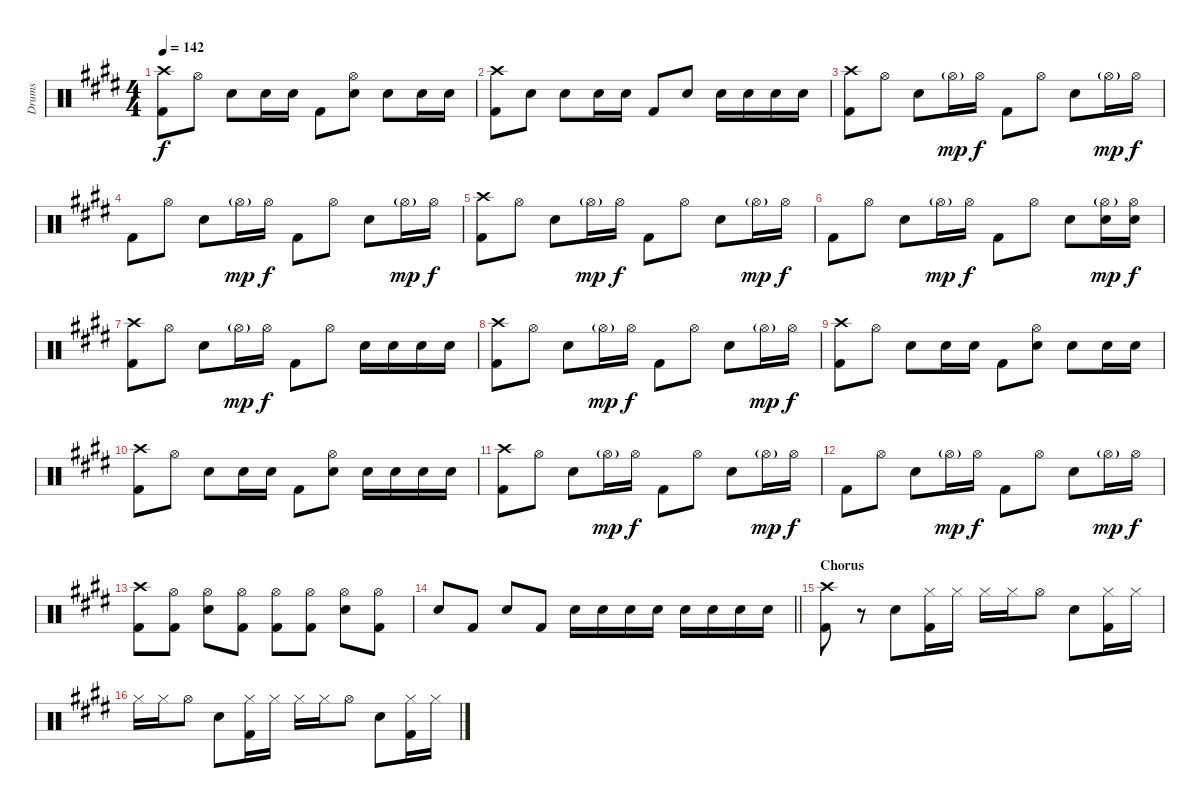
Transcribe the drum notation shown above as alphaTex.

\track ("Drums" "Drums") {instrument percussion}
\staff {score}
\articulation defaults
\ts (4 4)
\tempo 142
\clef neutral
\ks e
("Crash high (hit)" "Kick (hit) 2").8{dy f} "Hi-Hat (open)".8 "Electric Snare (hit)".8 "Electric Snare (hit)".16 "Electric Snare (hit)".16 "Kick (hit) 2".8 ("Hi-Hat (open)" "Electric Snare (hit)").8 "Electric Snare (hit)".8 "Electric Snare (hit)".16 "Electric Snare (hit)".16 |
("Crash high (hit)" "Kick (hit) 2").8 "Electric Snare (hit)".8 "Electric Snare (hit)".8 "Electric Snare (hit)".16 "Electric Snare (hit)".16 "Kick (hit) 2".8 "Electric Snare (hit)".8 "Electric Snare (hit)".16 "Electric Snare (hit)".16 "Electric Snare (hit)".16 "Electric Snare (hit)".16 |
("Crash high (hit)" "Kick (hit) 2").8 "Hi-Hat (open)".8 "Electric Snare (hit)".8 "Hi-Hat (open)"{g}.16{dy mp} "Hi-Hat (open)".16{dy f} "Kick (hit) 2".8 "Hi-Hat (open)".8 "Electric Snare (hit)".8 "Hi-Hat (open)"{g}.16{dy mp} "Hi-Hat (open)".16{dy f} |
"Kick (hit) 2".8 "Hi-Hat (open)".8 "Electric Snare (hit)".8 "Hi-Hat (open)"{g}.16{dy mp} "Hi-Hat (open)".16{dy f} "Kick (hit) 2".8 "Hi-Hat (open)".8 "Electric Snare (hit)".8 "Hi-Hat (open)"{g}.16{dy mp} "Hi-Hat (open)".16{dy f} |
("Crash high (hit)" "Kick (hit) 2").8 "Hi-Hat (open)".8 "Electric Snare (hit)".8 "Hi-Hat (open)"{g}.16{dy mp} "Hi-Hat (open)".16{dy f} "Kick (hit) 2".8 "Hi-Hat (open)".8 "Electric Snare (hit)".8 "Hi-Hat (open)"{g}.16{dy mp} "Hi-Hat (open)".16{dy f} |
"Kick (hit) 2".8 "Hi-Hat (open)".8 "Electric Snare (hit)".8 "Hi-Hat (open)"{g}.16{dy mp} "Hi-Hat (open)".16{dy f} "Kick (hit) 2".8 "Hi-Hat (open)".8 "Electric Snare (hit)".8 ("Hi-Hat (open)"{g} "Electric Snare (hit)").16{dy mp} ("Hi-Hat (open)" "Electric Snare (hit)").16{dy f} |
("Crash high (hit)" "Kick (hit) 2").8 "Hi-Hat (open)".8 "Electric Snare (hit)".8 "Hi-Hat (open)"{g}.16{dy mp} "Hi-Hat (open)".16{dy f} "Kick (hit) 2".8 "Hi-Hat (open)".8 "Electric Snare (hit)".16 "Electric Snare (hit)".16 "Electric Snare (hit)".16 "Electric Snare (hit)".16 |
("Crash high (hit)" "Kick (hit) 2").8 "Hi-Hat (open)".8 "Electric Snare (hit)".8 "Hi-Hat (open)"{g}.16{dy mp} "Hi-Hat (open)".16{dy f} "Kick (hit) 2".8 "Hi-Hat (open)".8 "Electric Snare (hit)".8 "Hi-Hat (open)"{g}.16{dy mp} "Hi-Hat (open)".16{dy f} |
("Crash high (hit)" "Kick (hit) 2").8 "Hi-Hat (open)".8 "Electric Snare (hit)".8 "Electric Snare (hit)".16 "Electric Snare (hit)".16 "Kick (hit) 2".8 ("Hi-Hat (open)" "Electric Snare (hit)").8 "Electric Snare (hit)".8 "Electric Snare (hit)".16 "Electric Snare (hit)".16 |
("Crash high (hit)" "Kick (hit) 2").8 "Hi-Hat (open)".8 "Electric Snare (hit)".8 "Electric Snare (hit)".16 "Electric Snare (hit)".16 "Kick (hit) 2".8 ("Hi-Hat (open)" "Electric Snare (hit)").8 "Electric Snare (hit)".16 "Electric Snare (hit)".16 "Electric Snare (hit)".16 "Electric Snare (hit)".16 |
("Crash high (hit)" "Kick (hit) 2").8 "Hi-Hat (open)".8 "Electric Snare (hit)".8 "Hi-Hat (open)"{g}.16{dy mp} "Hi-Hat (open)".16{dy f} "Kick (hit) 2".8 "Hi-Hat (open)".8 "Electric Snare (hit)".8 "Hi-Hat (open)"{g}.16{dy mp} "Hi-Hat (open)".16{dy f} |
"Kick (hit) 2".8 "Hi-Hat (open)".8 "Electric Snare (hit)".8 "Hi-Hat (open)"{g}.16{dy mp} "Hi-Hat (open)".16{dy f} "Kick (hit) 2".8 "Hi-Hat (open)".8 "Electric Snare (hit)".8 "Hi-Hat (open)"{g}.16{dy mp} "Hi-Hat (open)".16{dy f} |
("Crash high (hit)" "Kick (hit) 2").8 ("Hi-Hat (open)" "Kick (hit) 2").8 ("Hi-Hat (open)" "Electric Snare (hit)").8 ("Hi-Hat (open)" "Kick (hit) 2").8 ("Hi-Hat (open)" "Kick (hit) 2").8 ("Hi-Hat (open)" "Kick (hit) 2").8 ("Hi-Hat (open)" "Electric Snare (hit)").8 ("Hi-Hat (open)" "Kick (hit) 2").8 |
\barLineRight lightlight "Electric Snare (hit)".8 "Kick (hit) 2".8 "Electric Snare (hit)".8 "Kick (hit) 2".8 "Electric Snare (hit)".16 "Electric Snare (hit)".16 "Electric Snare (hit)".16 "Electric Snare (hit)".16 "Electric Snare (hit)".16 "Electric Snare (hit)".16 "Electric Snare (hit)".16 "Electric Snare (hit)".16
|
\section ("" "Chorus")
("Crash high (hit)" "Kick (hit) 2").8 r.8 "Electric Snare (hit)".8 ("Hi-Hat (closed)" "Kick (hit) 2").16 "Hi-Hat (closed)".16 "Hi-Hat (closed)".16 "Hi-Hat (closed)".16 "Hi-Hat (open)".8 "Electric Snare (hit)".8 ("Hi-Hat (closed)" "Kick (hit) 2").16 "Hi-Hat (closed)".16 |
"Hi-Hat (closed)".16 "Hi-Hat (closed)".16 "Hi-Hat (open)".8 "Electric Snare (hit)".8 ("Hi-Hat (closed)" "Kick (hit) 2").16 "Hi-Hat (closed)".16 "Hi-Hat (closed)".16 "Hi-Hat (closed)".16 "Hi-Hat (open)".8 "Electric Snare (hit)".8 ("Hi-Hat (closed)" "Kick (hit) 2").16 "Hi-Hat (closed)".16
